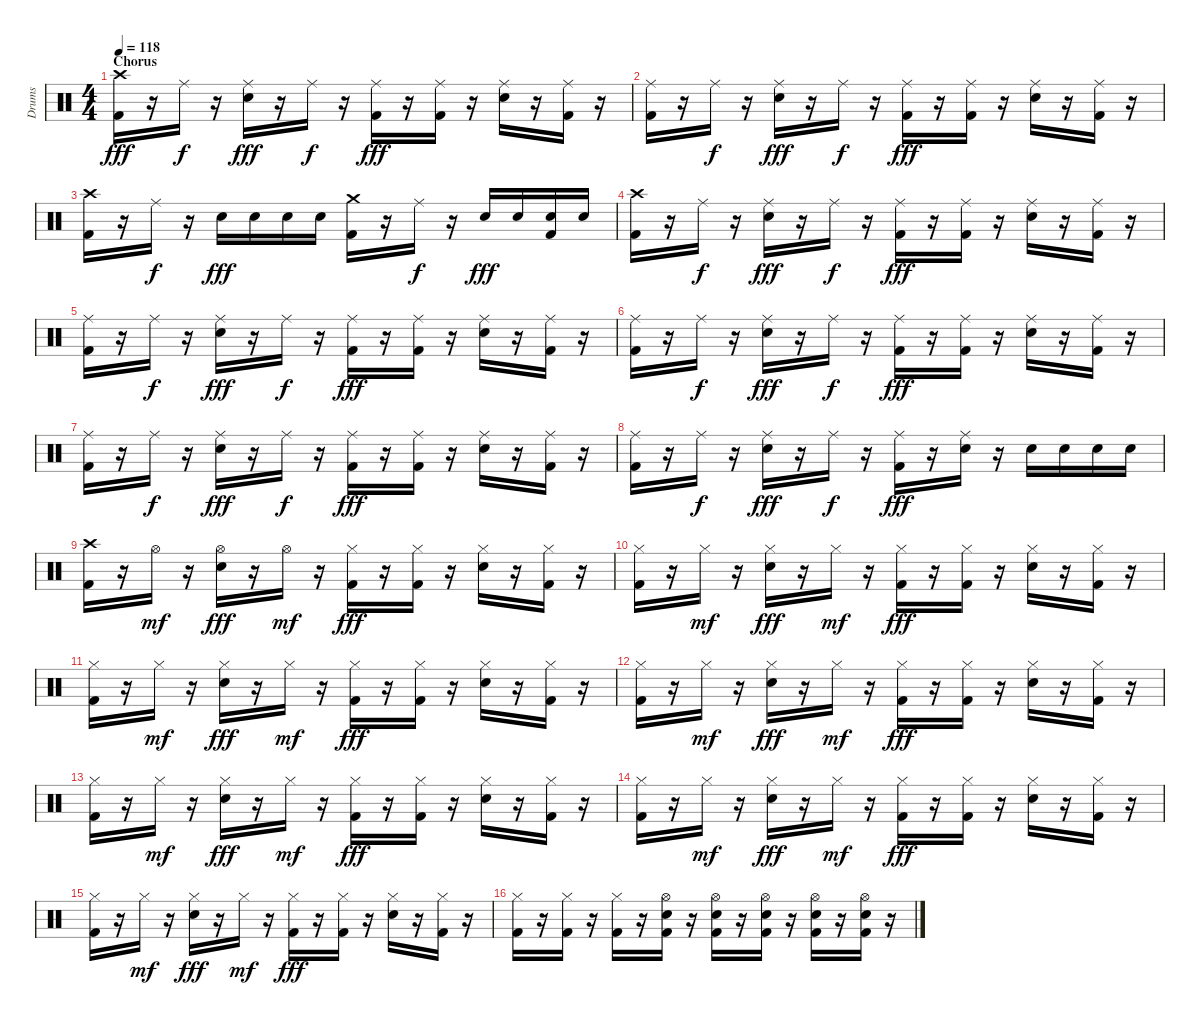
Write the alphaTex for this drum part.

\track ("Drums" "Drums") {instrument percussion}
\staff {score}
\articulation defaults
\ts (4 4)
\section ("" "Chorus")
\tempo 118
\clef neutral
\ks c
("Crash high (hit)" "Kick (hit) 2").16{dy fff} r.16 "Ride (middle)".16{dy f} r.16 ("Ride (middle)" "Snare (hit) 2").16{dy fff} r.16 "Ride (middle)".16{dy f} r.16 ("Ride (middle)" "Kick (hit) 2").16{dy fff} r.16 ("Ride (middle)" "Kick (hit) 2").16 r.16 ("Ride (middle)" "Snare (hit) 2").16 r.16 ("Ride (middle)" "Kick (hit) 2").16 r.16 |
("Ride (middle)" "Kick (hit) 2").16 r.16 "Ride (middle)".16{dy f} r.16 ("Ride (middle)" "Snare (hit) 2").16{dy fff} r.16 "Ride (middle)".16{dy f} r.16 ("Ride (middle)" "Kick (hit) 2").16{dy fff} r.16 ("Ride (middle)" "Kick (hit) 2").16 r.16 ("Ride (middle)" "Snare (hit) 2").16 r.16 ("Ride (middle)" "Kick (hit) 2").16 r.16 |
("Crash high (hit)" "Kick (hit) 2").16 r.16 "Ride (middle)".16{dy f} r.16 "Snare (hit) 2".16{dy fff} "Snare (hit) 2".16 "Snare (hit) 2".16 "Snare (hit) 2".16 ("Crash medium (hit)" "Kick (hit) 2").16 r.16 "Ride (middle)".16{dy f} r.16 "Snare (hit) 2".16{dy fff} "Snare (hit) 2".16 ("Snare (hit) 2" "Kick (hit) 2").16 "Snare (hit) 2".16 |
("Crash high (hit)" "Kick (hit) 2").16 r.16 "Ride (middle)".16{dy f} r.16 ("Ride (middle)" "Snare (hit) 2").16{dy fff} r.16 "Ride (middle)".16{dy f} r.16 ("Ride (middle)" "Kick (hit) 2").16{dy fff} r.16 ("Ride (middle)" "Kick (hit) 2").16 r.16 ("Ride (middle)" "Snare (hit) 2").16 r.16 ("Ride (middle)" "Kick (hit) 2").16 r.16 |
("Ride (middle)" "Kick (hit) 2").16 r.16 "Ride (middle)".16{dy f} r.16 ("Ride (middle)" "Snare (hit) 2").16{dy fff} r.16 "Ride (middle)".16{dy f} r.16 ("Ride (middle)" "Kick (hit) 2").16{dy fff} r.16 ("Ride (middle)" "Kick (hit) 2").16 r.16 ("Ride (middle)" "Snare (hit) 2").16 r.16 ("Ride (middle)" "Kick (hit) 2").16 r.16 |
("Ride (middle)" "Kick (hit) 2").16 r.16 "Ride (middle)".16{dy f} r.16 ("Ride (middle)" "Snare (hit) 2").16{dy fff} r.16 "Ride (middle)".16{dy f} r.16 ("Ride (middle)" "Kick (hit) 2").16{dy fff} r.16 ("Ride (middle)" "Kick (hit) 2").16 r.16 ("Ride (middle)" "Snare (hit) 2").16 r.16 ("Ride (middle)" "Kick (hit) 2").16 r.16 |
("Ride (middle)" "Kick (hit) 2").16 r.16 "Ride (middle)".16{dy f} r.16 ("Ride (middle)" "Snare (hit) 2").16{dy fff} r.16 "Ride (middle)".16{dy f} r.16 ("Ride (middle)" "Kick (hit) 2").16{dy fff} r.16 ("Ride (middle)" "Kick (hit) 2").16 r.16 ("Ride (middle)" "Snare (hit) 2").16 r.16 ("Ride (middle)" "Kick (hit) 2").16 r.16 |
("Ride (middle)" "Kick (hit) 2").16 r.16 "Ride (middle)".16{dy f} r.16 ("Ride (middle)" "Snare (hit) 2").16{dy fff} r.16 "Ride (middle)".16{dy f} r.16 ("Ride (middle)" "Kick (hit) 2").16{dy fff} r.16 ("Ride (middle)" "Snare (hit) 2").16 r.16 "Snare (hit) 2".16 "Snare (hit) 2".16 "Snare (hit) 2".16 "Snare (hit) 2".16 |
("Crash high (hit)" "Kick (hit) 2").16 r.16 "Hi-Hat (open)".16{dy mf} r.16 ("Hi-Hat (open)" "Snare (hit) 2").16{dy fff} r.16 "Hi-Hat (open)".16{dy mf} r.16 ("Hi-Hat (closed)" "Kick (hit) 2").16{dy fff} r.16 ("Hi-Hat (closed)" "Kick (hit) 2").16 r.16 ("Hi-Hat (closed)" "Snare (hit) 2").16 r.16 ("Hi-Hat (closed)" "Kick (hit) 2").16 r.16 |
("Hi-Hat (closed)" "Kick (hit) 2").16 r.16 "Hi-Hat (closed)".16{dy mf} r.16 ("Hi-Hat (closed)" "Snare (hit) 2").16{dy fff} r.16 "Hi-Hat (closed)".16{dy mf} r.16 ("Hi-Hat (closed)" "Kick (hit) 2").16{dy fff} r.16 ("Hi-Hat (closed)" "Kick (hit) 2").16 r.16 ("Hi-Hat (closed)" "Snare (hit) 2").16 r.16 ("Hi-Hat (closed)" "Kick (hit) 2").16 r.16 |
("Hi-Hat (closed)" "Kick (hit) 2").16 r.16 "Hi-Hat (closed)".16{dy mf} r.16 ("Hi-Hat (closed)" "Snare (hit) 2").16{dy fff} r.16 "Hi-Hat (closed)".16{dy mf} r.16 ("Hi-Hat (closed)" "Kick (hit) 2").16{dy fff} r.16 ("Hi-Hat (closed)" "Kick (hit) 2").16 r.16 ("Hi-Hat (closed)" "Snare (hit) 2").16 r.16 ("Hi-Hat (closed)" "Kick (hit) 2").16 r.16 |
("Hi-Hat (closed)" "Kick (hit) 2").16 r.16 "Hi-Hat (closed)".16{dy mf} r.16 ("Hi-Hat (closed)" "Snare (hit) 2").16{dy fff} r.16 "Hi-Hat (closed)".16{dy mf} r.16 ("Hi-Hat (closed)" "Kick (hit) 2").16{dy fff} r.16 ("Hi-Hat (closed)" "Kick (hit) 2").16 r.16 ("Hi-Hat (closed)" "Snare (hit) 2").16 r.16 ("Hi-Hat (closed)" "Kick (hit) 2").16 r.16 |
("Hi-Hat (closed)" "Kick (hit) 2").16 r.16 "Hi-Hat (closed)".16{dy mf} r.16 ("Hi-Hat (closed)" "Snare (hit) 2").16{dy fff} r.16 "Hi-Hat (closed)".16{dy mf} r.16 ("Hi-Hat (closed)" "Kick (hit) 2").16{dy fff} r.16 ("Hi-Hat (closed)" "Kick (hit) 2").16 r.16 ("Hi-Hat (closed)" "Snare (hit) 2").16 r.16 ("Hi-Hat (closed)" "Kick (hit) 2").16 r.16 |
("Hi-Hat (closed)" "Kick (hit) 2").16 r.16 "Hi-Hat (closed)".16{dy mf} r.16 ("Hi-Hat (closed)" "Snare (hit) 2").16{dy fff} r.16 "Hi-Hat (closed)".16{dy mf} r.16 ("Hi-Hat (closed)" "Kick (hit) 2").16{dy fff} r.16 ("Hi-Hat (closed)" "Kick (hit) 2").16 r.16 ("Hi-Hat (closed)" "Snare (hit) 2").16 r.16 ("Hi-Hat (closed)" "Kick (hit) 2").16 r.16 |
("Hi-Hat (closed)" "Kick (hit) 2").16 r.16 "Hi-Hat (closed)".16{dy mf} r.16 ("Hi-Hat (closed)" "Snare (hit) 2").16{dy fff} r.16 "Hi-Hat (closed)".16{dy mf} r.16 ("Hi-Hat (closed)" "Kick (hit) 2").16{dy fff} r.16 ("Hi-Hat (closed)" "Kick (hit) 2").16 r.16 ("Hi-Hat (closed)" "Snare (hit) 2").16 r.16 ("Hi-Hat (closed)" "Kick (hit) 2").16 r.16 |
("Hi-Hat (closed)" "Kick (hit) 2").16 r.16 ("Hi-Hat (closed)" "Kick (hit) 2").16 r.16 ("Hi-Hat (closed)" "Kick (hit) 2").16 r.16 ("Hi-Hat (open)" "Snare (hit) 2" "Kick (hit) 2").16 r.16 ("Hi-Hat (open)" "Snare (hit) 2" "Kick (hit) 2").16 r.16 ("Hi-Hat (open)" "Snare (hit) 2" "Kick (hit) 2").16 r.16 ("Hi-Hat (open)" "Snare (hit) 2" "Kick (hit) 2").16 r.16 ("Hi-Hat (open)" "Snare (hit) 2" "Kick (hit) 2").16 r.16
